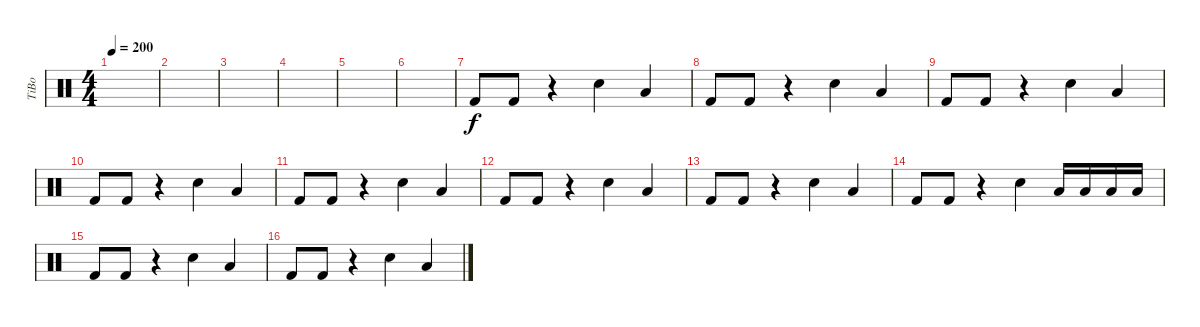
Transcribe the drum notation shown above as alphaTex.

\track ("TiBo" "TiBo") {instrument percussion}
\staff {score}
\articulation defaults
\ts (4 4)
\tempo 200
\clef neutral
\ks c
|
|
|
|
|
|
"Kick (hit) 2".8 "Kick (hit) 2".8 r.4 "Snare (hit) 2".4 "Low Tom (hit)".4 |
"Kick (hit) 2".8 "Kick (hit) 2".8 r.4 "Snare (hit) 2".4 "Low Tom (hit)".4 |
"Kick (hit) 2".8 "Kick (hit) 2".8 r.4 "Snare (hit) 2".4 "Low Tom (hit)".4 |
"Kick (hit) 2".8 "Kick (hit) 2".8 r.4 "Snare (hit) 2".4 "Low Tom (hit)".4 |
"Kick (hit) 2".8 "Kick (hit) 2".8 r.4 "Snare (hit) 2".4 "Low Tom (hit)".4 |
"Kick (hit) 2".8 "Kick (hit) 2".8 r.4 "Snare (hit) 2".4 "Low Tom (hit)".4 |
"Kick (hit) 2".8 "Kick (hit) 2".8 r.4 "Snare (hit) 2".4 "Low Tom (hit)".4 |
"Kick (hit) 2".8 "Kick (hit) 2".8 r.4 "Snare (hit) 2".4 "Low Tom (hit)".16 "Low Tom (hit)".16 "Low Tom (hit)".16 "Low Tom (hit)".16 |
"Kick (hit) 2".8 "Kick (hit) 2".8 r.4 "Snare (hit) 2".4 "Low Tom (hit)".4 |
"Kick (hit) 2".8 "Kick (hit) 2".8 r.4 "Snare (hit) 2".4 "Low Tom (hit)".4
